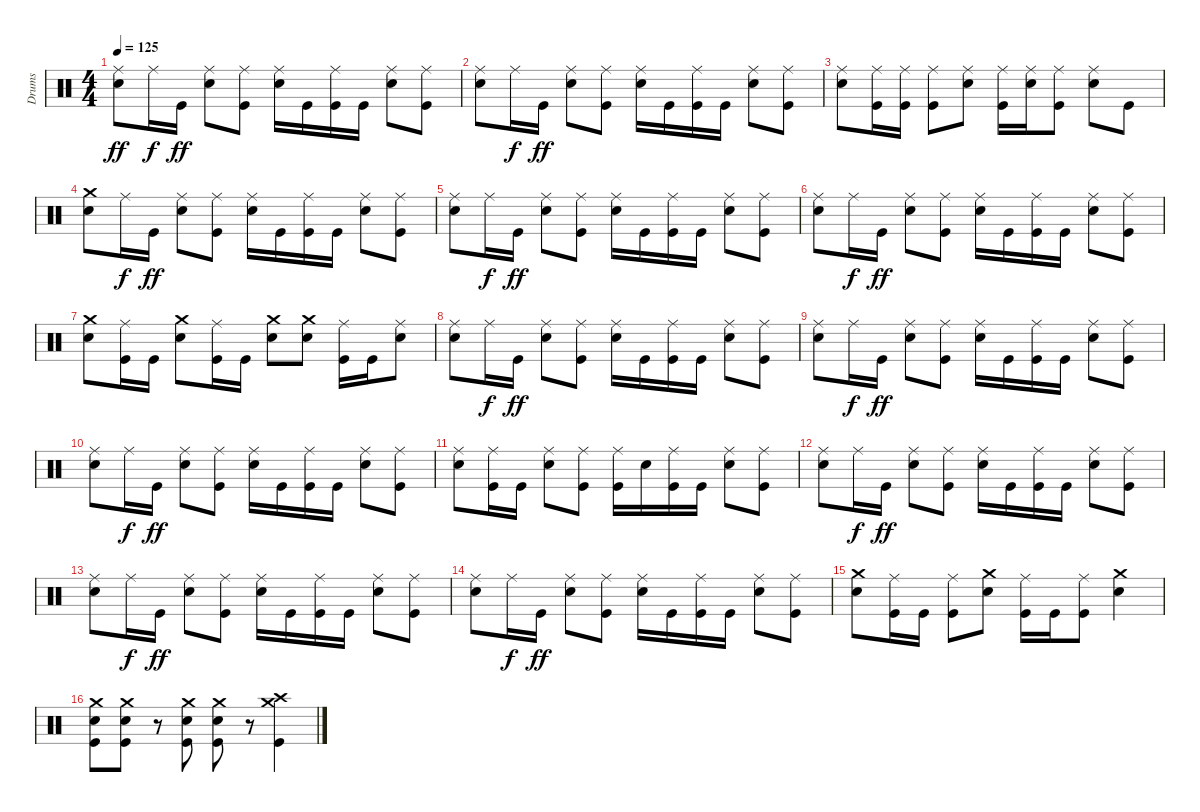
\track ("Drums" "Drums") {instrument percussion}
\staff {score}
\articulation defaults
\ts (4 4)
\tempo 125
\clef neutral
\ks c
("Ride (middle)" "Electric Snare (hit)").8{dy ff} "Ride (middle)".16{dy f} "Kick (hit)".16{dy ff} ("Ride (middle)" "Electric Snare (hit)").8 ("Ride (middle)" "Kick (hit)").8 ("Ride (middle)" "Electric Snare (hit)").16 "Kick (hit)".16 ("Ride (middle)" "Kick (hit)").16 "Kick (hit)".16 ("Ride (middle)" "Electric Snare (hit)").8 ("Ride (middle)" "Kick (hit)").8 |
("Ride (middle)" "Electric Snare (hit)").8 "Ride (middle)".16{dy f} "Kick (hit)".16{dy ff} ("Ride (middle)" "Electric Snare (hit)").8 ("Ride (middle)" "Kick (hit)").8 ("Ride (middle)" "Electric Snare (hit)").16 "Kick (hit)".16 ("Ride (middle)" "Kick (hit)").16 "Kick (hit)".16 ("Ride (middle)" "Electric Snare (hit)").8 ("Ride (middle)" "Kick (hit)").8 |
("Ride (middle)" "Electric Snare (hit)").8 ("Ride (middle)" "Kick (hit)").16 ("Ride (middle)" "Kick (hit)").16 ("Ride (middle)" "Kick (hit)").8 ("Ride (middle)" "Electric Snare (hit)").8 ("Ride (middle)" "Kick (hit)").16 ("Ride (middle)" "Electric Snare (hit)").16 ("Ride (middle)" "Kick (hit)").8 ("Ride (middle)" "Electric Snare (hit)").8 "Kick (hit)".8 |
("Crash medium (hit)" "Electric Snare (hit)").8 "Ride (middle)".16{dy f} "Kick (hit)".16{dy ff} ("Ride (middle)" "Electric Snare (hit)").8 ("Ride (middle)" "Kick (hit)").8 ("Ride (middle)" "Electric Snare (hit)").16 "Kick (hit)".16 ("Ride (middle)" "Kick (hit)").16 "Kick (hit)".16 ("Ride (middle)" "Electric Snare (hit)").8 ("Ride (middle)" "Kick (hit)").8 |
("Ride (middle)" "Electric Snare (hit)").8 "Ride (middle)".16{dy f} "Kick (hit)".16{dy ff} ("Ride (middle)" "Electric Snare (hit)").8 ("Ride (middle)" "Kick (hit)").8 ("Ride (middle)" "Electric Snare (hit)").16 "Kick (hit)".16 ("Ride (middle)" "Kick (hit)").16 "Kick (hit)".16 ("Ride (middle)" "Electric Snare (hit)").8 ("Ride (middle)" "Kick (hit)").8 |
("Ride (middle)" "Electric Snare (hit)").8 "Ride (middle)".16{dy f} "Kick (hit)".16{dy ff} ("Ride (middle)" "Electric Snare (hit)").8 ("Ride (middle)" "Kick (hit)").8 ("Ride (middle)" "Electric Snare (hit)").16 "Kick (hit)".16 ("Ride (middle)" "Kick (hit)").16 "Kick (hit)".16 ("Ride (middle)" "Electric Snare (hit)").8 ("Ride (middle)" "Kick (hit)").8 |
("Crash medium (hit)" "Electric Snare (hit)").8 ("Ride (middle)" "Kick (hit)").16 "Kick (hit)".16 ("Crash medium (hit)" "Electric Snare (hit)").8 ("Ride (middle)" "Kick (hit)").16 "Kick (hit)".16 ("Crash medium (hit)" "Electric Snare (hit)").8 ("Crash medium (hit)" "Electric Snare (hit)").8 ("Ride (middle)" "Kick (hit)").16 "Kick (hit)".16 ("Ride (middle)" "Electric Snare (hit)").8 |
("Ride (middle)" "Electric Snare (hit)").8 "Ride (middle)".16{dy f} "Kick (hit)".16{dy ff} ("Ride (middle)" "Electric Snare (hit)").8 ("Ride (middle)" "Kick (hit)").8 ("Ride (middle)" "Electric Snare (hit)").16 "Kick (hit)".16 ("Ride (middle)" "Kick (hit)").16 "Kick (hit)".16 ("Ride (middle)" "Electric Snare (hit)").8 ("Ride (middle)" "Kick (hit)").8 |
("Ride (middle)" "Electric Snare (hit)").8 "Ride (middle)".16{dy f} "Kick (hit)".16{dy ff} ("Ride (middle)" "Electric Snare (hit)").8 ("Ride (middle)" "Kick (hit)").8 ("Ride (middle)" "Electric Snare (hit)").16 "Kick (hit)".16 ("Ride (middle)" "Kick (hit)").16 "Kick (hit)".16 ("Ride (middle)" "Electric Snare (hit)").8 ("Ride (middle)" "Kick (hit)").8 |
("Ride (middle)" "Electric Snare (hit)").8 "Ride (middle)".16{dy f} "Kick (hit)".16{dy ff} ("Ride (middle)" "Electric Snare (hit)").8 ("Ride (middle)" "Kick (hit)").8 ("Ride (middle)" "Electric Snare (hit)").16 "Kick (hit)".16 ("Ride (middle)" "Kick (hit)").16 "Kick (hit)".16 ("Ride (middle)" "Electric Snare (hit)").8 ("Ride (middle)" "Kick (hit)").8 |
("Ride (middle)" "Electric Snare (hit)").8 ("Ride (middle)" "Kick (hit)").16 "Kick (hit)".16 ("Ride (middle)" "Electric Snare (hit)").8 ("Ride (middle)" "Kick (hit)").8 ("Ride (middle)" "Kick (hit)").16 "Electric Snare (hit)".16 ("Ride (middle)" "Kick (hit)").16 "Kick (hit)".16 ("Ride (middle)" "Electric Snare (hit)").8 ("Ride (middle)" "Kick (hit)").8 |
("Ride (middle)" "Electric Snare (hit)").8 "Ride (middle)".16{dy f} "Kick (hit)".16{dy ff} ("Ride (middle)" "Electric Snare (hit)").8 ("Ride (middle)" "Kick (hit)").8 ("Ride (middle)" "Electric Snare (hit)").16 "Kick (hit)".16 ("Ride (middle)" "Kick (hit)").16 "Kick (hit)".16 ("Ride (middle)" "Electric Snare (hit)").8 ("Ride (middle)" "Kick (hit)").8 |
("Ride (middle)" "Electric Snare (hit)").8 "Ride (middle)".16{dy f} "Kick (hit)".16{dy ff} ("Ride (middle)" "Electric Snare (hit)").8 ("Ride (middle)" "Kick (hit)").8 ("Ride (middle)" "Electric Snare (hit)").16 "Kick (hit)".16 ("Ride (middle)" "Kick (hit)").16 "Kick (hit)".16 ("Ride (middle)" "Electric Snare (hit)").8 ("Ride (middle)" "Kick (hit)").8 |
("Ride (middle)" "Electric Snare (hit)").8 "Ride (middle)".16{dy f} "Kick (hit)".16{dy ff} ("Ride (middle)" "Electric Snare (hit)").8 ("Ride (middle)" "Kick (hit)").8 ("Ride (middle)" "Electric Snare (hit)").16 "Kick (hit)".16 ("Ride (middle)" "Kick (hit)").16 "Kick (hit)".16 ("Ride (middle)" "Electric Snare (hit)").8 ("Ride (middle)" "Kick (hit)").8 |
("Crash medium (hit)" "Electric Snare (hit)").8 ("Ride (middle)" "Kick (hit)").16 "Kick (hit)".16 ("Ride (middle)" "Kick (hit)").8 ("Crash medium (hit)" "Electric Snare (hit)").8 ("Ride (middle)" "Kick (hit)").16 "Kick (hit)".16 ("Ride (middle)" "Kick (hit)").8 ("Crash medium (hit)" "Electric Snare (hit)").4 |
("Crash medium (hit)" "Electric Snare (hit)" "Kick (hit)").8 ("Crash medium (hit)" "Electric Snare (hit)" "Kick (hit)").8 r.8 ("Crash medium (hit)" "Electric Snare (hit)" "Kick (hit)").8 ("Crash medium (hit)" "Electric Snare (hit)" "Kick (hit)").8 r.8 ("Crash medium (hit)" "Crash high (hit)" "Kick (hit)").4
